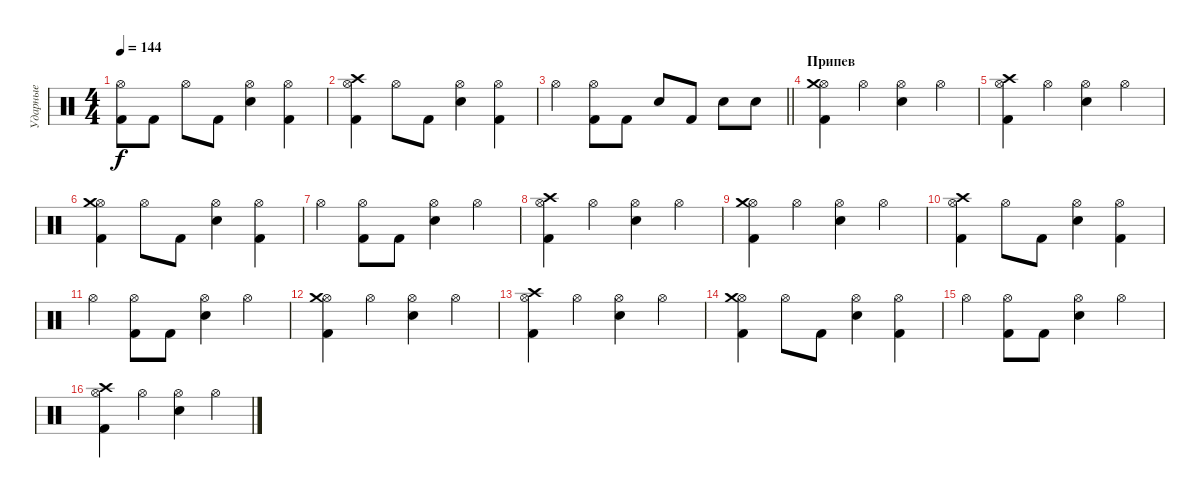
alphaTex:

\track ("Ударные" "Ударные") {instrument percussion}
\staff {score}
\articulation defaults
\ts (4 4)
\tempo 144
\clef neutral
\ks c
("Kick (hit) 2" "Hi-Hat (open)").8{dy f} "Kick (hit) 2".8 "Hi-Hat (open)".8 "Kick (hit) 2".8 ("Snare (hit) 2" "Hi-Hat (open)").4 ("Kick (hit) 2" "Hi-Hat (open)").4 |
("Kick (hit) 2" "Hi-Hat (open)" "Crash high (hit)").4 "Hi-Hat (open)".8 "Kick (hit) 2".8 ("Snare (hit) 2" "Hi-Hat (open)").4 ("Kick (hit) 2" "Hi-Hat (open)").4 |
\barLineRight lightlight "Hi-Hat (open)".4
("Kick (hit) 2" "Hi-Hat (open)").8 "Kick (hit) 2".8 "Snare (hit) 2".8 "Kick (hit) 2".8 "Snare (hit) 2".8 "Snare (hit) 2".8 |
\section ("" "Припев")
("Kick (hit) 2" "Hi-Hat (open)" "Crash medium (hit)").4 "Hi-Hat (open)".4 ("Snare (hit) 2" "Hi-Hat (open)").4 "Hi-Hat (open)".4 |
("Kick (hit) 2" "Hi-Hat (open)" "Crash high (hit)").4 "Hi-Hat (open)".4 ("Snare (hit) 2" "Hi-Hat (open)").4 "Hi-Hat (open)".4 |
("Kick (hit) 2" "Hi-Hat (open)" "Crash medium (hit)").4 "Hi-Hat (open)".8 "Kick (hit) 2".8 ("Snare (hit) 2" "Hi-Hat (open)").4 ("Kick (hit) 2" "Hi-Hat (open)").4 |
"Hi-Hat (open)".4 ("Kick (hit) 2" "Hi-Hat (open)").8 "Kick (hit) 2".8 ("Snare (hit) 2" "Hi-Hat (open)").4 "Hi-Hat (open)".4 |
("Kick (hit) 2" "Hi-Hat (open)" "Crash high (hit)").4 "Hi-Hat (open)".4 ("Snare (hit) 2" "Hi-Hat (open)").4 "Hi-Hat (open)".4 |
("Kick (hit) 2" "Hi-Hat (open)" "Crash medium (hit)").4 "Hi-Hat (open)".4 ("Snare (hit) 2" "Hi-Hat (open)").4 "Hi-Hat (open)".4 |
("Kick (hit) 2" "Hi-Hat (open)" "Crash high (hit)").4 "Hi-Hat (open)".8 "Kick (hit) 2".8 ("Snare (hit) 2" "Hi-Hat (open)").4 ("Kick (hit) 2" "Hi-Hat (open)").4 |
"Hi-Hat (open)".4 ("Kick (hit) 2" "Hi-Hat (open)").8 "Kick (hit) 2".8 ("Snare (hit) 2" "Hi-Hat (open)").4 "Hi-Hat (open)".4 |
("Kick (hit) 2" "Hi-Hat (open)" "Crash medium (hit)").4 "Hi-Hat (open)".4 ("Snare (hit) 2" "Hi-Hat (open)").4 "Hi-Hat (open)".4 |
("Kick (hit) 2" "Hi-Hat (open)" "Crash high (hit)").4 "Hi-Hat (open)".4 ("Snare (hit) 2" "Hi-Hat (open)").4 "Hi-Hat (open)".4 |
("Kick (hit) 2" "Hi-Hat (open)" "Crash medium (hit)").4 "Hi-Hat (open)".8 "Kick (hit) 2".8 ("Snare (hit) 2" "Hi-Hat (open)").4 ("Kick (hit) 2" "Hi-Hat (open)").4 |
"Hi-Hat (open)".4 ("Kick (hit) 2" "Hi-Hat (open)").8 "Kick (hit) 2".8 ("Snare (hit) 2" "Hi-Hat (open)").4 "Hi-Hat (open)".4 |
("Kick (hit) 2" "Hi-Hat (open)" "Crash high (hit)").4 "Hi-Hat (open)".4 ("Snare (hit) 2" "Hi-Hat (open)").4 "Hi-Hat (open)".4
